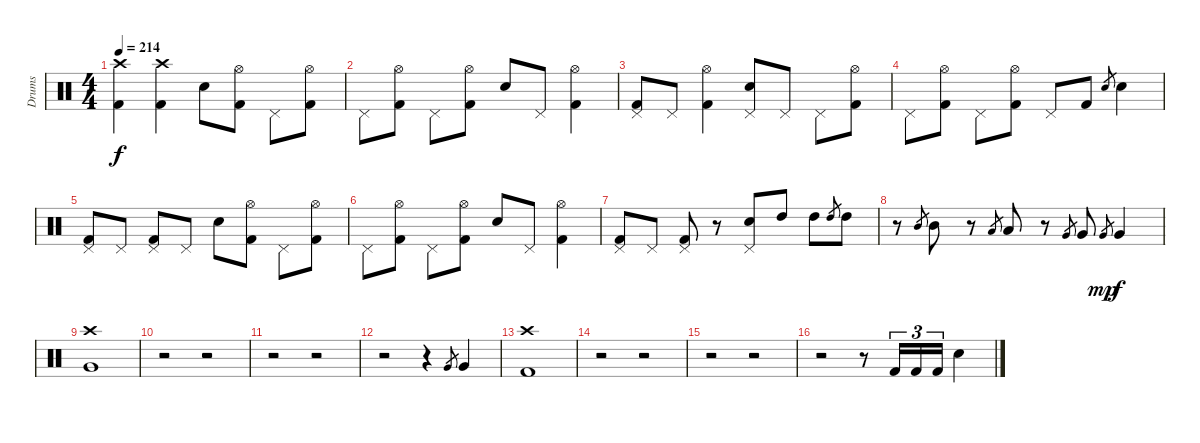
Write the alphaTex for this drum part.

\track ("Drums" "Drums") {instrument percussion}
\staff {score}
\articulation defaults
\ts (4 4)
\tempo 214
\clef neutral
\ks c
("Crash high (hit)" "Kick (hit) 2").4{dy f} ("Crash high (hit)" "Kick (hit) 2").4 "Electric Snare (hit)".8 ("Hi-Hat (open)" "Kick (hit) 2").8 "Pedal Hi-Hat (hit)".8 ("Hi-Hat (open)" "Kick (hit) 2").8 |
"Pedal Hi-Hat (hit)".8 ("Hi-Hat (open)" "Kick (hit) 2").8 "Pedal Hi-Hat (hit)".8 ("Hi-Hat (open)" "Kick (hit) 2").8 "Electric Snare (hit)".8 "Pedal Hi-Hat (hit)".8 ("Hi-Hat (open)" "Kick (hit) 2").4 |
("Pedal Hi-Hat (hit)" "Kick (hit) 2").8 "Pedal Hi-Hat (hit)".8 ("Hi-Hat (open)" "Kick (hit) 2").4 ("Pedal Hi-Hat (hit)" "Electric Snare (hit)").8 "Pedal Hi-Hat (hit)".8 "Pedal Hi-Hat (hit)".8 ("Hi-Hat (open)" "Kick (hit) 2").8 |
"Pedal Hi-Hat (hit)".8 ("Hi-Hat (open)" "Kick (hit) 2").8 "Pedal Hi-Hat (hit)".8 ("Hi-Hat (open)" "Kick (hit) 2").8 "Pedal Hi-Hat (hit)".8 "Kick (hit) 2".8 "Electric Snare (hit)".8{gr} "Electric Snare (hit)".4 |
("Pedal Hi-Hat (hit)" "Kick (hit) 2").8 "Pedal Hi-Hat (hit)".8 ("Pedal Hi-Hat (hit)" "Kick (hit) 2").8 "Pedal Hi-Hat (hit)".8 "Electric Snare (hit)".8 ("Hi-Hat (open)" "Kick (hit) 2").8 "Pedal Hi-Hat (hit)".8 ("Hi-Hat (open)" "Kick (hit) 2").8 |
"Pedal Hi-Hat (hit)".8 ("Hi-Hat (open)" "Kick (hit) 2").8 "Pedal Hi-Hat (hit)".8 ("Hi-Hat (open)" "Kick (hit) 2").8 "Electric Snare (hit)".8 "Pedal Hi-Hat (hit)".8 ("Hi-Hat (open)" "Kick (hit) 2").4 |
("Pedal Hi-Hat (hit)" "Kick (hit) 2").8 "Pedal Hi-Hat (hit)".8 ("Pedal Hi-Hat (hit)" "Kick (hit) 2").8 r.8 ("Pedal Hi-Hat (hit)" "Electric Snare (hit)").8 "High Tom (hit)".8 "High Tom (hit)".8 "High Tom (hit)".8{gr} "High Tom (hit)".8 |
r.8 "Mid Tom (hit)".8{gr} "Mid Tom (hit)".8 r.8 "Low Tom (hit)".8{gr} "Low Tom (hit)".8 r.8 "Very Low Tom (hit)".8{gr} "Very Low Tom (hit)".8 "Very Low Tom (hit)".8{gr dy mp} "Very Low Tom (hit)".4{dy f} |
("Crash high (hit)" "Very Low Tom (hit)").1 |
r.2 r.2 |
r.2 r.2 |
r.2 r.4 "Very Low Tom (hit)".8{gr} "Very Low Tom (hit)".4 |
("Crash high (hit)" "Kick (hit) 2").1 |
r.2 r.2 |
r.2 r.2 |
r.2 r.8 "Kick (hit) 2".16{tu (3 2)} "Kick (hit) 2".16{tu (3 2)} "Kick (hit) 2".16{tu (3 2)} "Electric Snare (hit)".4
